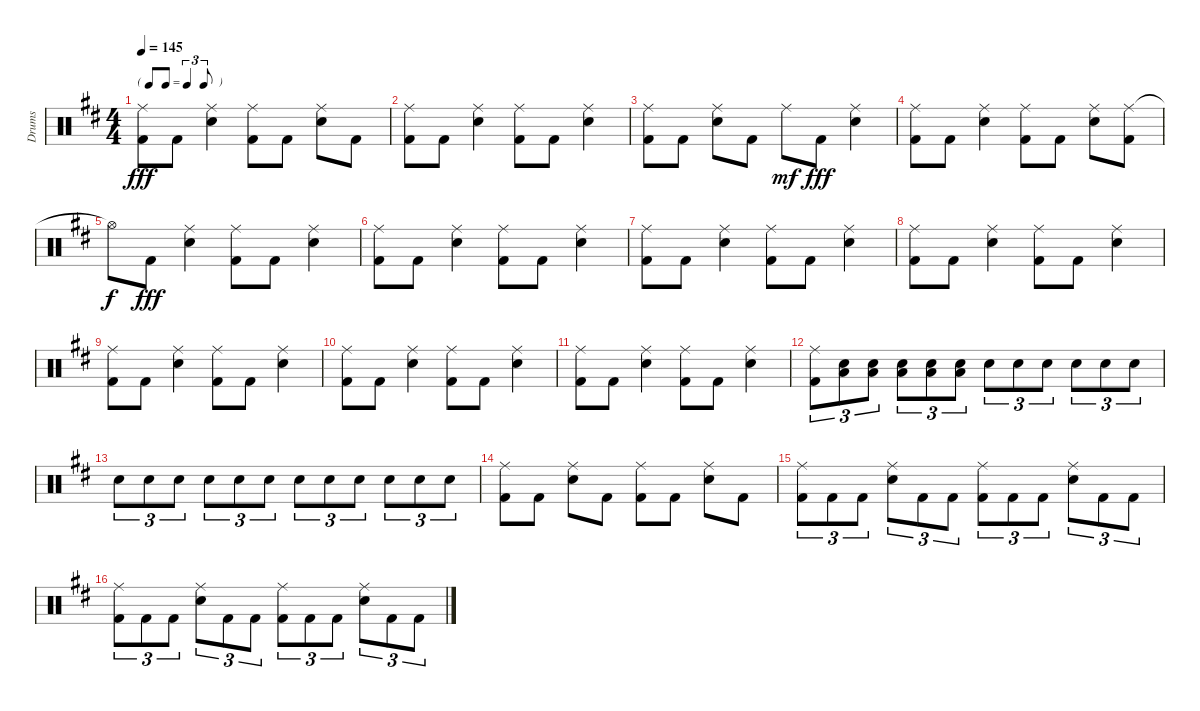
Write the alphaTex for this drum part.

\track ("Drums" "Drums") {instrument percussion}
\staff {score}
\articulation defaults
\ts (4 4)
\tf triplet8th
\tempo 145
\clef neutral
\ks d
("Ride (middle)" "Kick (hit) 2").8{dy fff} "Kick (hit) 2".8 ("Ride (middle)" "Snare (hit) 2").4 ("Ride (middle)" "Kick (hit) 2").8 "Kick (hit) 2".8 ("Ride (middle)" "Snare (hit) 2").8 "Kick (hit) 2".8 |
("Ride (middle)" "Kick (hit) 2").8 "Kick (hit) 2".8 ("Ride (middle)" "Snare (hit) 2").4 ("Ride (middle)" "Kick (hit) 2").8 "Kick (hit) 2".8 ("Ride (middle)" "Snare (hit) 2").4 |
("Ride (middle)" "Kick (hit) 2").8 "Kick (hit) 2".8 ("Ride (middle)" "Snare (hit) 2").8 "Kick (hit) 2".8 "Ride (middle)".8{dy mf} "Kick (hit) 2".8{dy fff} ("Ride (middle)" "Snare (hit) 2").4 |
("Ride (middle)" "Kick (hit) 2").8 "Kick (hit) 2".8 ("Ride (middle)" "Snare (hit) 2").4 ("Ride (middle)" "Kick (hit) 2").8 "Kick (hit) 2".8 ("Ride (middle)" "Snare (hit) 2").8 ("Ride (middle)" "Kick (hit) 2").8 |
"Hi-Hat (open)"{t}.8{dy f} "Kick (hit) 2".8{dy fff} ("Ride (middle)" "Snare (hit) 2").4 ("Ride (middle)" "Kick (hit) 2").8 "Kick (hit) 2".8 ("Ride (middle)" "Snare (hit) 2").4 |
("Ride (middle)" "Kick (hit) 2").8 "Kick (hit) 2".8 ("Ride (middle)" "Snare (hit) 2").4 ("Ride (middle)" "Kick (hit) 2").8 "Kick (hit) 2".8 ("Ride (middle)" "Snare (hit) 2").4 |
("Ride (middle)" "Kick (hit) 2").8 "Kick (hit) 2".8 ("Ride (middle)" "Snare (hit) 2").4 ("Ride (middle)" "Kick (hit) 2").8 "Kick (hit) 2".8 ("Ride (middle)" "Snare (hit) 2").4 |
("Ride (middle)" "Kick (hit) 2").8 "Kick (hit) 2".8 ("Ride (middle)" "Snare (hit) 2").4 ("Ride (middle)" "Kick (hit) 2").8 "Kick (hit) 2".8 ("Ride (middle)" "Snare (hit) 2").4 |
("Ride (middle)" "Kick (hit) 2").8 "Kick (hit) 2".8 ("Ride (middle)" "Snare (hit) 2").4 ("Ride (middle)" "Kick (hit) 2").8 "Kick (hit) 2".8 ("Ride (middle)" "Snare (hit) 2").4 |
("Ride (middle)" "Kick (hit) 2").8 "Kick (hit) 2".8 ("Ride (middle)" "Snare (hit) 2").4 ("Ride (middle)" "Kick (hit) 2").8 "Kick (hit) 2".8 ("Ride (middle)" "Snare (hit) 2").4 |
("Ride (middle)" "Kick (hit) 2").8 "Kick (hit) 2".8 ("Ride (middle)" "Snare (hit) 2").4 ("Ride (middle)" "Kick (hit) 2").8 "Kick (hit) 2".8 ("Ride (middle)" "Snare (hit) 2").4 |
("Ride (middle)" "Kick (hit) 2").8{tu (3 2)} ("Low Tom (hit)" "Snare (hit) 2").8{tu (3 2)} ("Low Tom (hit)" "Snare (hit) 2").8{tu (3 2)} ("Low Tom (hit)" "Snare (hit) 2").8{tu (3 2)} ("Low Tom (hit)" "Snare (hit) 2").8{tu (3 2)} ("Low Tom (hit)" "Snare (hit) 2").8{tu (3 2)} "Snare (hit) 2".8{tu (3 2)} "Snare (hit) 2".8{tu (3 2)} "Snare (hit) 2".8{tu (3 2)} "Snare (hit) 2".8{tu (3 2)} "Snare (hit) 2".8{tu (3 2)} "Snare (hit) 2".8{tu (3 2)} |
"Snare (hit) 2".8{tu (3 2)} "Snare (hit) 2".8{tu (3 2)} "Snare (hit) 2".8{tu (3 2)} "Snare (hit) 2".8{tu (3 2)} "Snare (hit) 2".8{tu (3 2)} "Snare (hit) 2".8{tu (3 2)} "Snare (hit) 2".8{tu (3 2)} "Snare (hit) 2".8{tu (3 2)} "Snare (hit) 2".8{tu (3 2)} "Snare (hit) 2".8{tu (3 2)} "Snare (hit) 2".8{tu (3 2)} "Snare (hit) 2".8{tu (3 2)} |
("Ride (middle)" "Kick (hit) 2").8 "Kick (hit) 2".8 ("Ride (middle)" "Snare (hit) 2").8 "Kick (hit) 2".8 ("Ride (middle)" "Kick (hit) 2").8 "Kick (hit) 2".8 ("Ride (middle)" "Snare (hit) 2").8 "Kick (hit) 2".8 |
("Ride (middle)" "Kick (hit) 2").8{tu (3 2)} "Kick (hit) 2".8{tu (3 2)} "Kick (hit) 2".8{tu (3 2)} ("Ride (middle)" "Snare (hit) 2").8{tu (3 2)} "Kick (hit) 2".8{tu (3 2)} "Kick (hit) 2".8{tu (3 2)} ("Ride (middle)" "Kick (hit) 2").8{tu (3 2)} "Kick (hit) 2".8{tu (3 2)} "Kick (hit) 2".8{tu (3 2)} ("Ride (middle)" "Snare (hit) 2").8{tu (3 2)} "Kick (hit) 2".8{tu (3 2)} "Kick (hit) 2".8{tu (3 2)} |
("Ride (middle)" "Kick (hit) 2").8{tu (3 2)} "Kick (hit) 2".8{tu (3 2)} "Kick (hit) 2".8{tu (3 2)} ("Ride (middle)" "Snare (hit) 2").8{tu (3 2)} "Kick (hit) 2".8{tu (3 2)} "Kick (hit) 2".8{tu (3 2)} ("Ride (middle)" "Kick (hit) 2").8{tu (3 2)} "Kick (hit) 2".8{tu (3 2)} "Kick (hit) 2".8{tu (3 2)} ("Ride (middle)" "Snare (hit) 2").8{tu (3 2)} "Kick (hit) 2".8{tu (3 2)} "Kick (hit) 2".8{tu (3 2)}
